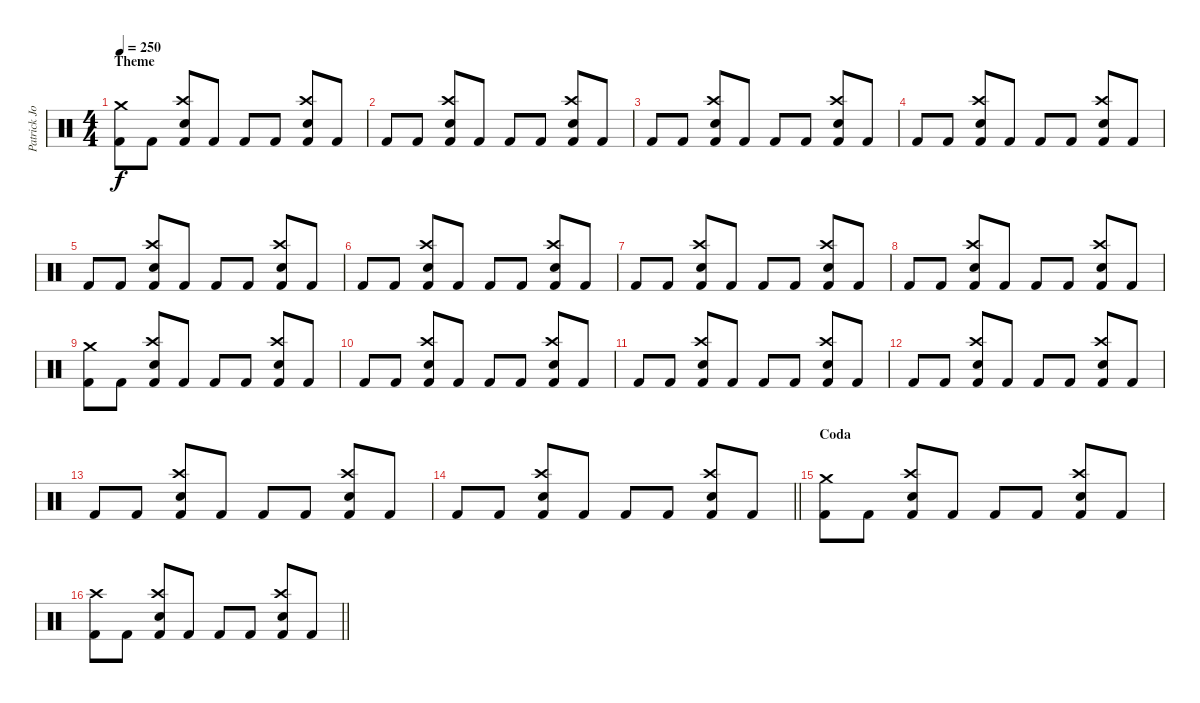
\track ("Patrick Johansson" "Patrick Jo") {instrument percussion}
\staff {score}
\articulation defaults
\ts (4 4)
\section ("" "Theme")
\tempo 250
\clef neutral
\ks c
("Crash medium (hit)" "Kick (hit) 2").8{dy f} "Kick (hit) 2".8 ("Crash high (hit)" "Snare (hit) 2" "Kick (hit) 2").8 "Kick (hit) 2".8 "Kick (hit) 2".8 "Kick (hit) 2".8 ("Crash high (hit)" "Snare (hit) 2" "Kick (hit) 2").8 "Kick (hit) 2".8 |
"Kick (hit) 2".8 "Kick (hit) 2".8 ("Crash high (hit)" "Snare (hit) 2" "Kick (hit) 2").8 "Kick (hit) 2".8 "Kick (hit) 2".8 "Kick (hit) 2".8 ("Crash high (hit)" "Snare (hit) 2" "Kick (hit) 2").8 "Kick (hit) 2".8 |
"Kick (hit) 2".8 "Kick (hit) 2".8 ("Crash high (hit)" "Snare (hit) 2" "Kick (hit) 2").8 "Kick (hit) 2".8 "Kick (hit) 2".8 "Kick (hit) 2".8 ("Crash high (hit)" "Snare (hit) 2" "Kick (hit) 2").8 "Kick (hit) 2".8 |
"Kick (hit) 2".8 "Kick (hit) 2".8 ("Crash high (hit)" "Snare (hit) 2" "Kick (hit) 2").8 "Kick (hit) 2".8 "Kick (hit) 2".8 "Kick (hit) 2".8 ("Crash high (hit)" "Snare (hit) 2" "Kick (hit) 2").8 "Kick (hit) 2".8 |
"Kick (hit) 2".8 "Kick (hit) 2".8 ("Crash high (hit)" "Snare (hit) 2" "Kick (hit) 2").8 "Kick (hit) 2".8 "Kick (hit) 2".8 "Kick (hit) 2".8 ("Crash high (hit)" "Snare (hit) 2" "Kick (hit) 2").8 "Kick (hit) 2".8 |
"Kick (hit) 2".8 "Kick (hit) 2".8 ("Crash high (hit)" "Snare (hit) 2" "Kick (hit) 2").8 "Kick (hit) 2".8 "Kick (hit) 2".8 "Kick (hit) 2".8 ("Crash high (hit)" "Snare (hit) 2" "Kick (hit) 2").8 "Kick (hit) 2".8 |
"Kick (hit) 2".8 "Kick (hit) 2".8 ("Crash high (hit)" "Snare (hit) 2" "Kick (hit) 2").8 "Kick (hit) 2".8 "Kick (hit) 2".8 "Kick (hit) 2".8 ("Crash high (hit)" "Snare (hit) 2" "Kick (hit) 2").8 "Kick (hit) 2".8 |
"Kick (hit) 2".8 "Kick (hit) 2".8 ("Crash high (hit)" "Snare (hit) 2" "Kick (hit) 2").8 "Kick (hit) 2".8 "Kick (hit) 2".8 "Kick (hit) 2".8 ("Crash high (hit)" "Snare (hit) 2" "Kick (hit) 2").8 "Kick (hit) 2".8 |
("Crash medium (hit)" "Kick (hit) 2").8 "Kick (hit) 2".8 ("Crash high (hit)" "Snare (hit) 2" "Kick (hit) 2").8 "Kick (hit) 2".8 "Kick (hit) 2".8 "Kick (hit) 2".8 ("Crash high (hit)" "Snare (hit) 2" "Kick (hit) 2").8 "Kick (hit) 2".8 |
"Kick (hit) 2".8 "Kick (hit) 2".8 ("Crash high (hit)" "Snare (hit) 2" "Kick (hit) 2").8 "Kick (hit) 2".8 "Kick (hit) 2".8 "Kick (hit) 2".8 ("Crash high (hit)" "Snare (hit) 2" "Kick (hit) 2").8 "Kick (hit) 2".8 |
"Kick (hit) 2".8 "Kick (hit) 2".8 ("Crash high (hit)" "Snare (hit) 2" "Kick (hit) 2").8 "Kick (hit) 2".8 "Kick (hit) 2".8 "Kick (hit) 2".8 ("Crash high (hit)" "Snare (hit) 2" "Kick (hit) 2").8 "Kick (hit) 2".8 |
"Kick (hit) 2".8 "Kick (hit) 2".8 ("Crash high (hit)" "Snare (hit) 2" "Kick (hit) 2").8 "Kick (hit) 2".8 "Kick (hit) 2".8 "Kick (hit) 2".8 ("Crash high (hit)" "Snare (hit) 2" "Kick (hit) 2").8 "Kick (hit) 2".8 |
"Kick (hit) 2".8 "Kick (hit) 2".8 ("Crash high (hit)" "Snare (hit) 2" "Kick (hit) 2").8 "Kick (hit) 2".8 "Kick (hit) 2".8 "Kick (hit) 2".8 ("Crash high (hit)" "Snare (hit) 2" "Kick (hit) 2").8 "Kick (hit) 2".8 |
\barLineRight lightlight "Kick (hit) 2".8 "Kick (hit) 2".8
("Crash high (hit)" "Snare (hit) 2" "Kick (hit) 2").8 "Kick (hit) 2".8 "Kick (hit) 2".8 "Kick (hit) 2".8 ("Crash high (hit)" "Snare (hit) 2" "Kick (hit) 2").8 "Kick (hit) 2".8 |
\section ("" "Coda")
("Crash medium (hit)" "Kick (hit) 2").8 "Kick (hit) 2".8 ("Crash high (hit)" "Snare (hit) 2" "Kick (hit) 2").8 "Kick (hit) 2".8 "Kick (hit) 2".8 "Kick (hit) 2".8 ("Crash high (hit)" "Snare (hit) 2" "Kick (hit) 2").8 "Kick (hit) 2".8 |
\barLineRight lightlight
("Crash high (hit)" "Kick (hit) 2").8 "Kick (hit) 2".8 ("Crash high (hit)" "Snare (hit) 2" "Kick (hit) 2").8 "Kick (hit) 2".8 "Kick (hit) 2".8 "Kick (hit) 2".8 ("Crash high (hit)" "Snare (hit) 2" "Kick (hit) 2").8 "Kick (hit) 2".8
